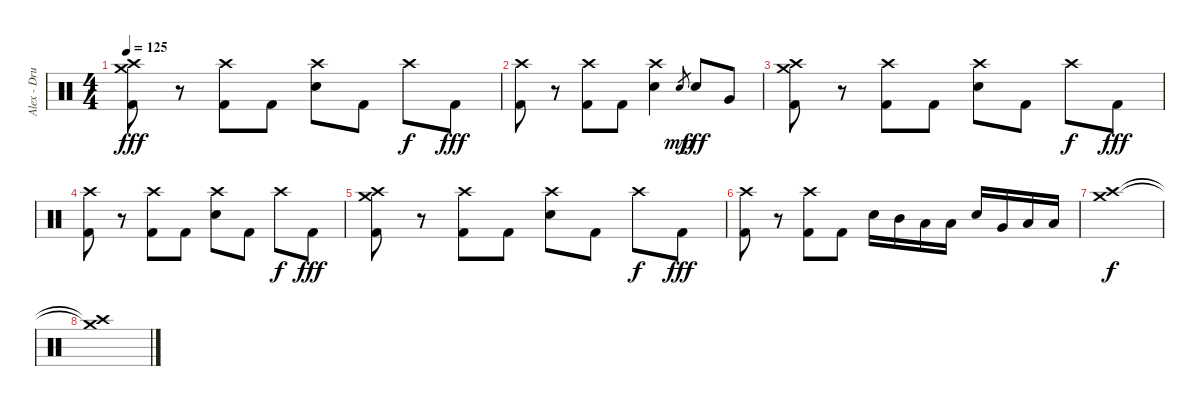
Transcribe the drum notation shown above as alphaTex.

\track ("Alex - Drums" "Alex - Dru") {instrument percussion}
\staff {score}
\articulation defaults
\ts (4 4)
\tempo 125
\clef neutral
\ks c
("Crash high (hit)" "Crash medium (hit)" "Kick (hit) 2").8{dy fff} r.8 ("Crash high (hit)" "Kick (hit) 2").8 "Kick (hit) 2".8 ("Crash high (hit)" "Electric Snare (hit)").8 "Kick (hit) 2".8 "Crash high (hit)".8{dy f} "Kick (hit) 2".8{dy fff} |
("Crash high (hit)" "Kick (hit) 2").8 r.8 ("Crash high (hit)" "Kick (hit) 2").8 "Kick (hit) 2".8 ("Crash high (hit)" "Electric Snare (hit)").4 "Electric Snare (hit)".8{gr dy mp} "Electric Snare (hit)".8{dy fff} "Very Low Tom (hit)".8 |
("Crash high (hit)" "Crash medium (hit)" "Kick (hit) 2").8 r.8 ("Crash high (hit)" "Kick (hit) 2").8 "Kick (hit) 2".8 ("Crash high (hit)" "Electric Snare (hit)").8 "Kick (hit) 2".8 "Crash high (hit)".8{dy f} "Kick (hit) 2".8{dy fff} |
("Crash high (hit)" "Kick (hit) 2").8 r.8 ("Crash high (hit)" "Kick (hit) 2").8 "Kick (hit) 2".8 ("Crash high (hit)" "Electric Snare (hit)").8 "Kick (hit) 2".8 "Crash high (hit)".8{dy f} "Kick (hit) 2".8{dy fff} |
("Crash high (hit)" "Crash medium (hit)" "Kick (hit) 2").8 r.8 ("Crash high (hit)" "Kick (hit) 2").8 "Kick (hit) 2".8 ("Crash high (hit)" "Electric Snare (hit)").8 "Kick (hit) 2".8 "Crash high (hit)".8{dy f} "Kick (hit) 2".8{dy fff} |
("Crash high (hit)" "Kick (hit) 2").8 r.8 ("Crash high (hit)" "Kick (hit) 2").8 "Kick (hit) 2".8 "Electric Snare (hit)".16 "Mid Tom (hit)".16 "Low Tom (hit)".16 "Low Tom (hit)".16 "Electric Snare (hit)".16 "Very Low Tom (hit)".16 "Low Floor Tom (hit)".16 "Low Floor Tom (hit)".16 |
("Crash high (hit)" "Crash medium (hit)").1{dy f} |
("Crash high (hit)"{t} "Crash medium (hit)"{t}).1
